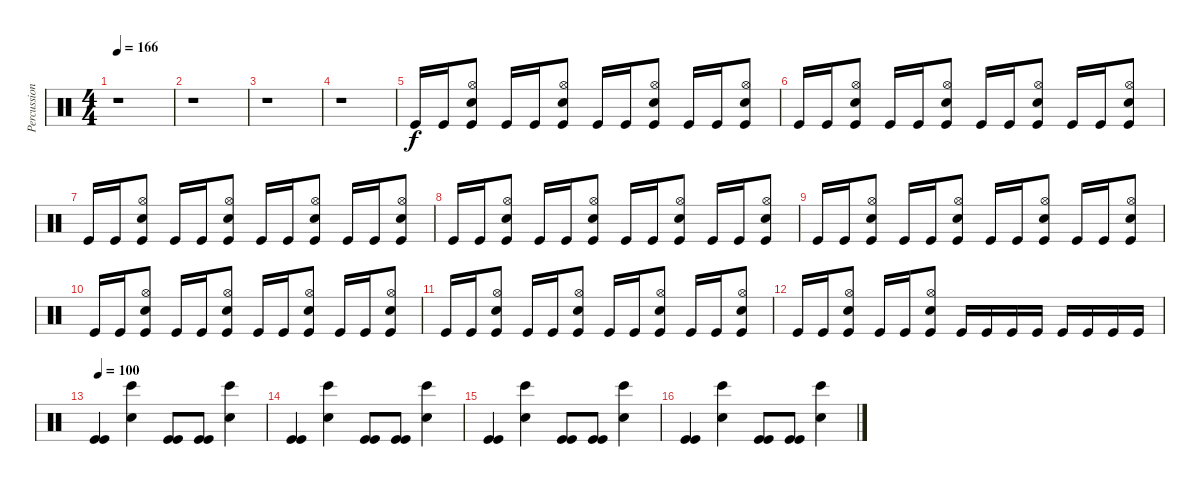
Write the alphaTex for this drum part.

\track ("Percussioni" "Percussion") {instrument percussion}
\staff {score}
\articulation defaults
\ts (4 4)
\tempo 166
\clef neutral
\ks c
r.1{dy f} |
r.1 |
r.1 |
r.1 |
"Kick (hit)".16 "Kick (hit)".16 ("Hi-Hat (open)" "Snare (hit) 2" "Kick (hit)").8 "Kick (hit)".16 "Kick (hit)".16 ("Hi-Hat (open)" "Snare (hit) 2" "Kick (hit)").8 "Kick (hit)".16 "Kick (hit)".16 ("Hi-Hat (open)" "Snare (hit) 2" "Kick (hit)").8 "Kick (hit)".16 "Kick (hit)".16 ("Hi-Hat (open)" "Snare (hit) 2" "Kick (hit)").8 |
"Kick (hit)".16 "Kick (hit)".16 ("Hi-Hat (open)" "Snare (hit) 2" "Kick (hit)").8 "Kick (hit)".16 "Kick (hit)".16 ("Hi-Hat (open)" "Snare (hit) 2" "Kick (hit)").8 "Kick (hit)".16 "Kick (hit)".16 ("Hi-Hat (open)" "Snare (hit) 2" "Kick (hit)").8 "Kick (hit)".16 "Kick (hit)".16 ("Hi-Hat (open)" "Snare (hit) 2" "Kick (hit)").8 |
"Kick (hit)".16 "Kick (hit)".16 ("Hi-Hat (open)" "Snare (hit) 2" "Kick (hit)").8 "Kick (hit)".16 "Kick (hit)".16 ("Hi-Hat (open)" "Snare (hit) 2" "Kick (hit)").8 "Kick (hit)".16 "Kick (hit)".16 ("Hi-Hat (open)" "Snare (hit) 2" "Kick (hit)").8 "Kick (hit)".16 "Kick (hit)".16 ("Hi-Hat (open)" "Snare (hit) 2" "Kick (hit)").8 |
"Kick (hit)".16 "Kick (hit)".16 ("Hi-Hat (open)" "Snare (hit) 2" "Kick (hit)").8 "Kick (hit)".16 "Kick (hit)".16 ("Hi-Hat (open)" "Snare (hit) 2" "Kick (hit)").8 "Kick (hit)".16 "Kick (hit)".16 ("Hi-Hat (open)" "Snare (hit) 2" "Kick (hit)").8 "Kick (hit)".16 "Kick (hit)".16 ("Hi-Hat (open)" "Snare (hit) 2" "Kick (hit)").8 |
"Kick (hit)".16 "Kick (hit)".16 ("Hi-Hat (open)" "Snare (hit) 2" "Kick (hit)").8 "Kick (hit)".16 "Kick (hit)".16 ("Hi-Hat (open)" "Snare (hit) 2" "Kick (hit)").8 "Kick (hit)".16 "Kick (hit)".16 ("Hi-Hat (open)" "Snare (hit) 2" "Kick (hit)").8 "Kick (hit)".16 "Kick (hit)".16 ("Hi-Hat (open)" "Snare (hit) 2" "Kick (hit)").8 |
"Kick (hit)".16 "Kick (hit)".16 ("Hi-Hat (open)" "Snare (hit) 2" "Kick (hit)").8 "Kick (hit)".16 "Kick (hit)".16 ("Hi-Hat (open)" "Snare (hit) 2" "Kick (hit)").8 "Kick (hit)".16 "Kick (hit)".16 ("Hi-Hat (open)" "Snare (hit) 2" "Kick (hit)").8 "Kick (hit)".16 "Kick (hit)".16 ("Hi-Hat (open)" "Snare (hit) 2" "Kick (hit)").8 |
"Kick (hit)".16 "Kick (hit)".16 ("Hi-Hat (open)" "Snare (hit) 2" "Kick (hit)").8 "Kick (hit)".16 "Kick (hit)".16 ("Hi-Hat (open)" "Snare (hit) 2" "Kick (hit)").8 "Kick (hit)".16 "Kick (hit)".16 ("Hi-Hat (open)" "Snare (hit) 2" "Kick (hit)").8 "Kick (hit)".16 "Kick (hit)".16 ("Hi-Hat (open)" "Snare (hit) 2" "Kick (hit)").8 |
"Kick (hit)".16 "Kick (hit)".16 ("Hi-Hat (open)" "Snare (hit) 2" "Kick (hit)").8 "Kick (hit)".16 "Kick (hit)".16 ("Hi-Hat (open)" "Snare (hit) 2" "Kick (hit)").8 "Kick (hit)".16 "Kick (hit)".16 "Kick (hit)".16 "Kick (hit)".16 "Kick (hit)".16 "Kick (hit)".16 "Kick (hit)".16 "Kick (hit)".16 |
\tempo 100
("Kick (hit)" "Kick (hit)").4 ("Bongo High (hit)" "Snare (hit) 2").4 ("Kick (hit)" "Kick (hit)").8 ("Kick (hit)" "Kick (hit)").8 ("Bongo High (hit)" "Snare (hit) 2").4 |
("Kick (hit)" "Kick (hit)").4 ("Bongo High (hit)" "Snare (hit) 2").4 ("Kick (hit)" "Kick (hit)").8 ("Kick (hit)" "Kick (hit)").8 ("Bongo High (hit)" "Snare (hit) 2").4 |
("Kick (hit)" "Kick (hit)").4 ("Bongo High (hit)" "Snare (hit) 2").4 ("Kick (hit)" "Kick (hit)").8 ("Kick (hit)" "Kick (hit)").8 ("Bongo High (hit)" "Snare (hit) 2").4 |
("Kick (hit)" "Kick (hit)").4 ("Bongo High (hit)" "Snare (hit) 2").4 ("Kick (hit)" "Kick (hit)").8 ("Kick (hit)" "Kick (hit)").8 ("Bongo High (hit)" "Snare (hit) 2").4
